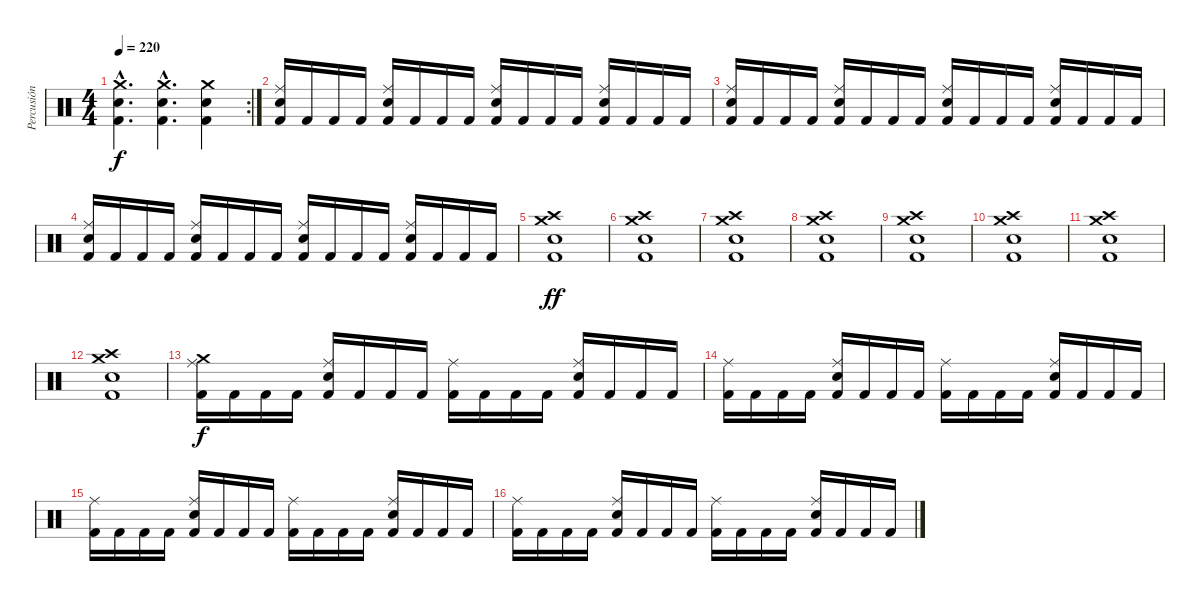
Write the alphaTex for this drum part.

\track ("Percusión" "Percusión") {instrument percussion}
\staff {score}
\articulation defaults
\rc 2
\ts (4 4)
\tempo 220
\clef neutral
\ks c
("Crash medium (hit)"{hac} "Electric Snare (hit)"{hac} "Kick (hit) 2"{hac}).4{d dy f} ("Crash medium (hit)"{hac} "Electric Snare (hit)"{hac} "Kick (hit) 2"{hac}).4{d} ("Crash medium (hit)" "Electric Snare (hit)" "Kick (hit) 2").4 |
("Ride (middle)" "Snare (hit) 2" "Kick (hit) 2").16 "Kick (hit) 2".16 "Kick (hit) 2".16 "Kick (hit) 2".16 ("Ride (middle)" "Snare (hit) 2" "Kick (hit) 2").16 "Kick (hit) 2".16 "Kick (hit) 2".16 "Kick (hit) 2".16 ("Ride (middle)" "Snare (hit) 2" "Kick (hit) 2").16 "Kick (hit) 2".16 "Kick (hit) 2".16 "Kick (hit) 2".16 ("Ride (middle)" "Snare (hit) 2" "Kick (hit) 2").16 "Kick (hit) 2".16 "Kick (hit) 2".16 "Kick (hit) 2".16 |
("Ride (middle)" "Snare (hit) 2" "Kick (hit) 2").16 "Kick (hit) 2".16 "Kick (hit) 2".16 "Kick (hit) 2".16 ("Ride (middle)" "Snare (hit) 2" "Kick (hit) 2").16 "Kick (hit) 2".16 "Kick (hit) 2".16 "Kick (hit) 2".16 ("Ride (middle)" "Snare (hit) 2" "Kick (hit) 2").16 "Kick (hit) 2".16 "Kick (hit) 2".16 "Kick (hit) 2".16 ("Ride (middle)" "Snare (hit) 2" "Kick (hit) 2").16 "Kick (hit) 2".16 "Kick (hit) 2".16 "Kick (hit) 2".16 |
("Ride (middle)" "Snare (hit) 2" "Kick (hit) 2").16 "Kick (hit) 2".16 "Kick (hit) 2".16 "Kick (hit) 2".16 ("Ride (middle)" "Snare (hit) 2" "Kick (hit) 2").16 "Kick (hit) 2".16 "Kick (hit) 2".16 "Kick (hit) 2".16 ("Ride (middle)" "Snare (hit) 2" "Kick (hit) 2").16 "Kick (hit) 2".16 "Kick (hit) 2".16 "Kick (hit) 2".16 ("Ride (middle)" "Snare (hit) 2" "Kick (hit) 2").16 "Kick (hit) 2".16 "Kick (hit) 2".16 "Kick (hit) 2".16 |
("Crash high (hit)" "Crash medium (hit)" "Snare (hit) 2" "Kick (hit) 2").1{dy ff} |
("Crash high (hit)" "Crash medium (hit)" "Snare (hit) 2" "Kick (hit) 2").1 |
("Crash high (hit)" "Crash medium (hit)" "Snare (hit) 2" "Kick (hit) 2").1 |
("Crash high (hit)" "Crash medium (hit)" "Snare (hit) 2" "Kick (hit) 2").1 |
("Crash high (hit)" "Crash medium (hit)" "Snare (hit) 2" "Kick (hit) 2").1 |
("Crash high (hit)" "Crash medium (hit)" "Snare (hit) 2" "Kick (hit) 2").1 |
("Crash high (hit)" "Crash medium (hit)" "Snare (hit) 2" "Kick (hit) 2").1 |
("Crash high (hit)" "Crash medium (hit)" "Snare (hit) 2" "Kick (hit) 2").1 |
("Ride (middle)" "Crash medium (hit)" "Kick (hit) 2").16{dy f} "Kick (hit) 2".16 "Kick (hit) 2".16 "Kick (hit) 2".16 ("Ride (middle)" "Snare (hit) 2" "Kick (hit) 2").16 "Kick (hit) 2".16 "Kick (hit) 2".16 "Kick (hit) 2".16 ("Ride (middle)" "Kick (hit) 2").16 "Kick (hit) 2".16 "Kick (hit) 2".16 "Kick (hit) 2".16 ("Ride (middle)" "Snare (hit) 2" "Kick (hit) 2").16 "Kick (hit) 2".16 "Kick (hit) 2".16 "Kick (hit) 2".16 |
("Ride (middle)" "Kick (hit) 2").16 "Kick (hit) 2".16 "Kick (hit) 2".16 "Kick (hit) 2".16 ("Ride (middle)" "Snare (hit) 2" "Kick (hit) 2").16 "Kick (hit) 2".16 "Kick (hit) 2".16 "Kick (hit) 2".16 ("Ride (middle)" "Kick (hit) 2").16 "Kick (hit) 2".16 "Kick (hit) 2".16 "Kick (hit) 2".16 ("Ride (middle)" "Snare (hit) 2" "Kick (hit) 2").16 "Kick (hit) 2".16 "Kick (hit) 2".16 "Kick (hit) 2".16 |
("Ride (middle)" "Kick (hit) 2").16 "Kick (hit) 2".16 "Kick (hit) 2".16 "Kick (hit) 2".16 ("Ride (middle)" "Snare (hit) 2" "Kick (hit) 2").16 "Kick (hit) 2".16 "Kick (hit) 2".16 "Kick (hit) 2".16 ("Ride (middle)" "Kick (hit) 2").16 "Kick (hit) 2".16 "Kick (hit) 2".16 "Kick (hit) 2".16 ("Ride (middle)" "Snare (hit) 2" "Kick (hit) 2").16 "Kick (hit) 2".16 "Kick (hit) 2".16 "Kick (hit) 2".16 |
("Ride (middle)" "Kick (hit) 2").16 "Kick (hit) 2".16 "Kick (hit) 2".16 "Kick (hit) 2".16 ("Ride (middle)" "Snare (hit) 2" "Kick (hit) 2").16 "Kick (hit) 2".16 "Kick (hit) 2".16 "Kick (hit) 2".16 ("Ride (middle)" "Kick (hit) 2").16 "Kick (hit) 2".16 "Kick (hit) 2".16 "Kick (hit) 2".16 ("Ride (middle)" "Snare (hit) 2" "Kick (hit) 2").16 "Kick (hit) 2".16 "Kick (hit) 2".16 "Kick (hit) 2".16
